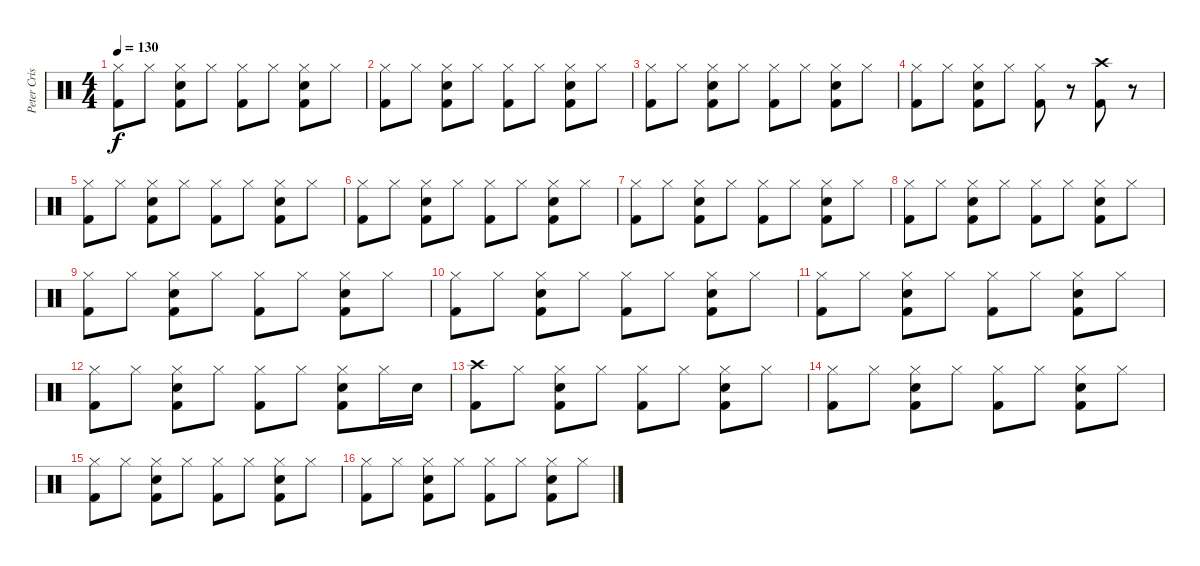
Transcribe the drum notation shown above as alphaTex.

\track ("Peter Criss" "Peter Cris") {instrument percussion}
\staff {score}
\articulation defaults
\ts (4 4)
\tempo 130
\clef neutral
\ks c
("Hi-Hat (closed)" "Kick (hit) 2").8{dy f} "Hi-Hat (closed)".8 ("Hi-Hat (closed)" "Electric Snare (hit)" "Kick (hit) 2").8 "Hi-Hat (closed)".8 ("Hi-Hat (closed)" "Kick (hit) 2").8 "Hi-Hat (closed)".8 ("Hi-Hat (closed)" "Electric Snare (hit)" "Kick (hit) 2").8 "Hi-Hat (closed)".8 |
("Hi-Hat (closed)" "Kick (hit) 2").8 "Hi-Hat (closed)".8 ("Hi-Hat (closed)" "Electric Snare (hit)" "Kick (hit) 2").8 "Hi-Hat (closed)".8 ("Hi-Hat (closed)" "Kick (hit) 2").8 "Hi-Hat (closed)".8 ("Hi-Hat (closed)" "Electric Snare (hit)" "Kick (hit) 2").8 "Hi-Hat (closed)".8 |
("Hi-Hat (closed)" "Kick (hit) 2").8 "Hi-Hat (closed)".8 ("Hi-Hat (closed)" "Electric Snare (hit)" "Kick (hit) 2").8 "Hi-Hat (closed)".8 ("Hi-Hat (closed)" "Kick (hit) 2").8 "Hi-Hat (closed)".8 ("Hi-Hat (closed)" "Electric Snare (hit)" "Kick (hit) 2").8 "Hi-Hat (closed)".8 |
("Hi-Hat (closed)" "Kick (hit) 2").8 "Hi-Hat (closed)".8 ("Hi-Hat (closed)" "Electric Snare (hit)" "Kick (hit) 2").8 "Hi-Hat (closed)".8 ("Hi-Hat (closed)" "Kick (hit) 2").8 r.8 ("Crash high (hit)" "Kick (hit) 2").8 r.8 |
("Hi-Hat (closed)" "Kick (hit) 2").8 "Hi-Hat (closed)".8 ("Hi-Hat (closed)" "Electric Snare (hit)" "Kick (hit) 2").8 "Hi-Hat (closed)".8 ("Hi-Hat (closed)" "Kick (hit) 2").8 "Hi-Hat (closed)".8 ("Hi-Hat (closed)" "Electric Snare (hit)" "Kick (hit) 2").8 "Hi-Hat (closed)".8 |
("Hi-Hat (closed)" "Kick (hit) 2").8 "Hi-Hat (closed)".8 ("Hi-Hat (closed)" "Electric Snare (hit)" "Kick (hit) 2").8 "Hi-Hat (closed)".8 ("Hi-Hat (closed)" "Kick (hit) 2").8 "Hi-Hat (closed)".8 ("Hi-Hat (closed)" "Electric Snare (hit)" "Kick (hit) 2").8 "Hi-Hat (closed)".8 |
("Hi-Hat (closed)" "Kick (hit) 2").8 "Hi-Hat (closed)".8 ("Hi-Hat (closed)" "Electric Snare (hit)" "Kick (hit) 2").8 "Hi-Hat (closed)".8 ("Hi-Hat (closed)" "Kick (hit) 2").8 "Hi-Hat (closed)".8 ("Hi-Hat (closed)" "Electric Snare (hit)" "Kick (hit) 2").8 "Hi-Hat (closed)".8 |
("Hi-Hat (closed)" "Kick (hit) 2").8 "Hi-Hat (closed)".8 ("Hi-Hat (closed)" "Electric Snare (hit)" "Kick (hit) 2").8 "Hi-Hat (closed)".8 ("Hi-Hat (closed)" "Kick (hit) 2").8 "Hi-Hat (closed)".8 ("Hi-Hat (closed)" "Electric Snare (hit)" "Kick (hit) 2").8 "Hi-Hat (closed)".8 |
("Hi-Hat (closed)" "Kick (hit) 2").8 "Hi-Hat (closed)".8 ("Hi-Hat (closed)" "Electric Snare (hit)" "Kick (hit) 2").8 "Hi-Hat (closed)".8 ("Hi-Hat (closed)" "Kick (hit) 2").8 "Hi-Hat (closed)".8 ("Hi-Hat (closed)" "Electric Snare (hit)" "Kick (hit) 2").8 "Hi-Hat (closed)".8 |
("Hi-Hat (closed)" "Kick (hit) 2").8 "Hi-Hat (closed)".8 ("Hi-Hat (closed)" "Electric Snare (hit)" "Kick (hit) 2").8 "Hi-Hat (closed)".8 ("Hi-Hat (closed)" "Kick (hit) 2").8 "Hi-Hat (closed)".8 ("Hi-Hat (closed)" "Electric Snare (hit)" "Kick (hit) 2").8 "Hi-Hat (closed)".8 |
("Hi-Hat (closed)" "Kick (hit) 2").8 "Hi-Hat (closed)".8 ("Hi-Hat (closed)" "Electric Snare (hit)" "Kick (hit) 2").8 "Hi-Hat (closed)".8 ("Hi-Hat (closed)" "Kick (hit) 2").8 "Hi-Hat (closed)".8 ("Hi-Hat (closed)" "Electric Snare (hit)" "Kick (hit) 2").8 "Hi-Hat (closed)".8 |
("Hi-Hat (closed)" "Kick (hit) 2").8 "Hi-Hat (closed)".8 ("Hi-Hat (closed)" "Electric Snare (hit)" "Kick (hit) 2").8 "Hi-Hat (closed)".8 ("Hi-Hat (closed)" "Kick (hit) 2").8 "Hi-Hat (closed)".8 ("Hi-Hat (closed)" "Electric Snare (hit)" "Kick (hit) 2").8 "Hi-Hat (closed)".16 "Electric Snare (hit)".16 |
("Crash high (hit)" "Kick (hit) 2").8 "Hi-Hat (closed)".8 ("Hi-Hat (closed)" "Electric Snare (hit)" "Kick (hit) 2").8 "Hi-Hat (closed)".8 ("Hi-Hat (closed)" "Kick (hit) 2").8 "Hi-Hat (closed)".8 ("Hi-Hat (closed)" "Electric Snare (hit)" "Kick (hit) 2").8 "Hi-Hat (closed)".8 |
("Hi-Hat (closed)" "Kick (hit) 2").8 "Hi-Hat (closed)".8 ("Hi-Hat (closed)" "Electric Snare (hit)" "Kick (hit) 2").8 "Hi-Hat (closed)".8 ("Hi-Hat (closed)" "Kick (hit) 2").8 "Hi-Hat (closed)".8 ("Hi-Hat (closed)" "Electric Snare (hit)" "Kick (hit) 2").8 "Hi-Hat (closed)".8 |
("Hi-Hat (closed)" "Kick (hit) 2").8 "Hi-Hat (closed)".8 ("Hi-Hat (closed)" "Electric Snare (hit)" "Kick (hit) 2").8 "Hi-Hat (closed)".8 ("Hi-Hat (closed)" "Kick (hit) 2").8 "Hi-Hat (closed)".8 ("Hi-Hat (closed)" "Electric Snare (hit)" "Kick (hit) 2").8 "Hi-Hat (closed)".8 |
("Hi-Hat (closed)" "Kick (hit) 2").8 "Hi-Hat (closed)".8 ("Hi-Hat (closed)" "Electric Snare (hit)" "Kick (hit) 2").8 "Hi-Hat (closed)".8 ("Hi-Hat (closed)" "Kick (hit) 2").8 "Hi-Hat (closed)".8 ("Hi-Hat (closed)" "Electric Snare (hit)" "Kick (hit) 2").8 "Hi-Hat (closed)".8
